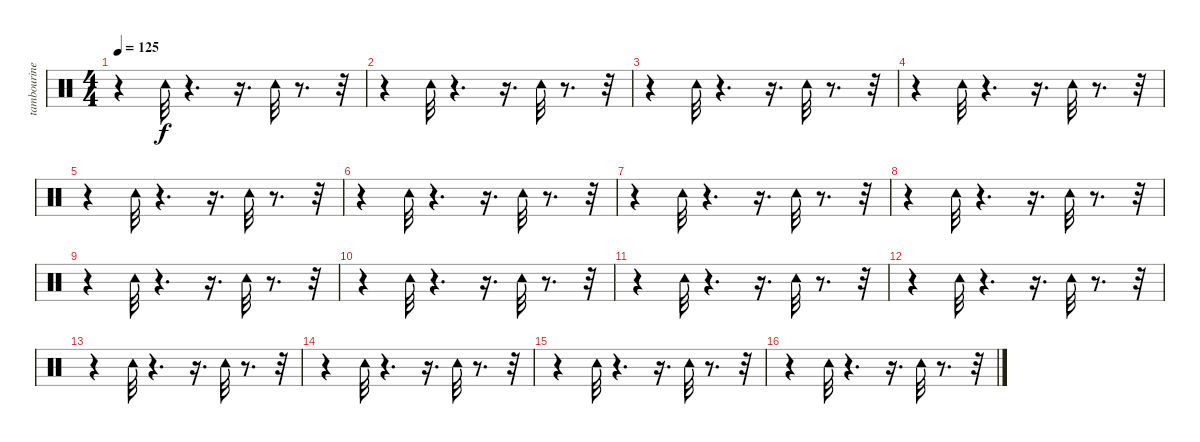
\track ("tambourine" "tambourine") {instrument percussion}
\staff {score}
\articulation defaults
\ts (4 4)
\tempo 125
\clef neutral
\ks c
r.4{dy f} "Tambourine (hit)".32 r.4{d} r.16{d} "Tambourine (hit)".32 r.8{d} r.32 |
r.4 "Tambourine (hit)".32 r.4{d} r.16{d} "Tambourine (hit)".32 r.8{d} r.32 |
r.4 "Tambourine (hit)".32 r.4{d} r.16{d} "Tambourine (hit)".32 r.8{d} r.32 |
r.4 "Tambourine (hit)".32 r.4{d} r.16{d} "Tambourine (hit)".32 r.8{d} r.32 |
r.4 "Tambourine (hit)".32 r.4{d} r.16{d} "Tambourine (hit)".32 r.8{d} r.32 |
r.4 "Tambourine (hit)".32 r.4{d} r.16{d} "Tambourine (hit)".32 r.8{d} r.32 |
r.4 "Tambourine (hit)".32 r.4{d} r.16{d} "Tambourine (hit)".32 r.8{d} r.32 |
r.4 "Tambourine (hit)".32 r.4{d} r.16{d} "Tambourine (hit)".32 r.8{d} r.32 |
r.4 "Tambourine (hit)".32 r.4{d} r.16{d} "Tambourine (hit)".32 r.8{d} r.32 |
r.4 "Tambourine (hit)".32 r.4{d} r.16{d} "Tambourine (hit)".32 r.8{d} r.32 |
r.4 "Tambourine (hit)".32 r.4{d} r.16{d} "Tambourine (hit)".32 r.8{d} r.32 |
r.4 "Tambourine (hit)".32 r.4{d} r.16{d} "Tambourine (hit)".32 r.8{d} r.32 |
r.4 "Tambourine (hit)".32 r.4{d} r.16{d} "Tambourine (hit)".32 r.8{d} r.32 |
r.4 "Tambourine (hit)".32 r.4{d} r.16{d} "Tambourine (hit)".32 r.8{d} r.32 |
r.4 "Tambourine (hit)".32 r.4{d} r.16{d} "Tambourine (hit)".32 r.8{d} r.32 |
r.4 "Tambourine (hit)".32 r.4{d} r.16{d} "Tambourine (hit)".32 r.8{d} r.32
